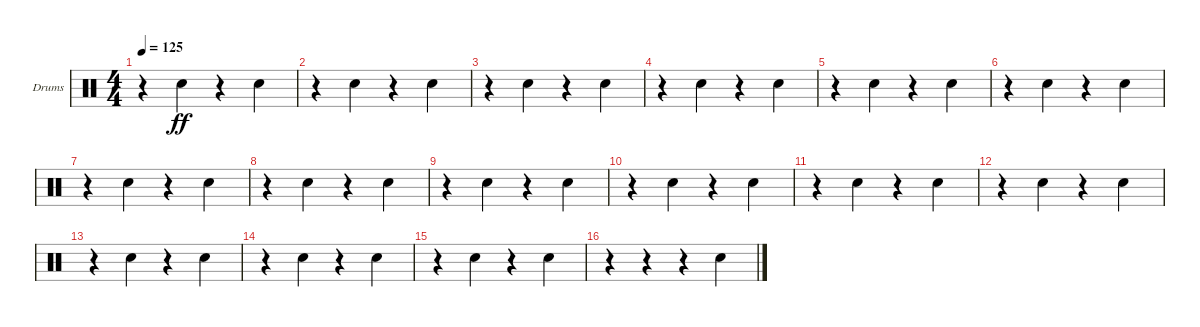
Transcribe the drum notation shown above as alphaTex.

\defaultSystemsLayout 4
\bracketExtendMode groupsimilarinstruments
\firstSystemTrackNameOrientation horizontal
\otherSystemsTrackNameOrientation horizontal
\track ("Drumkit" "Drums") {instrument percussion}
\staff {score}
\articulation defaults
\ts (4 4)
\tempo 125
\clef neutral
\scale
0.333333
\ks c
r.4{dy ff} "Snare (hit) 2".4 r.4 "Snare (hit) 2".4 |
\scale
0.333333 r.4 "Snare (hit) 2".4 r.4 "Snare (hit) 2".4 |
\scale
0.333333 r.4 "Snare (hit) 2".4 r.4 "Snare (hit) 2".4 |
\scale
0.333333 r.4 "Snare (hit) 2".4 r.4 "Snare (hit) 2".4 |
\scale
0.333333 r.4 "Snare (hit) 2".4 r.4 "Snare (hit) 2".4 |
\scale
0.333333 r.4 "Snare (hit) 2".4 r.4 "Snare (hit) 2".4 |
\scale
0.333333 r.4 "Snare (hit) 2".4 r.4 "Snare (hit) 2".4 |
\scale
0.333333 r.4 "Snare (hit) 2".4 r.4 "Snare (hit) 2".4 |
\scale
0.333333 r.4 "Snare (hit) 2".4 r.4 "Snare (hit) 2".4 |
\scale
0.333333 r.4 "Snare (hit) 2".4 r.4 "Snare (hit) 2".4 |
\scale
0.333333 r.4 "Snare (hit) 2".4 r.4 "Snare (hit) 2".4 |
\scale
0.333333 r.4 "Snare (hit) 2".4 r.4 "Snare (hit) 2".4 |
\scale
0.333333 r.4 "Snare (hit) 2".4 r.4 "Snare (hit) 2".4 |
\scale
0.333333 r.4 "Snare (hit) 2".4 r.4 "Snare (hit) 2".4 |
\scale
0.333333 r.4 "Snare (hit) 2".4 r.4 "Snare (hit) 2".4 |
\scale
0.333333 r.4 r.4 r.4 "Snare (hit) 2".4
